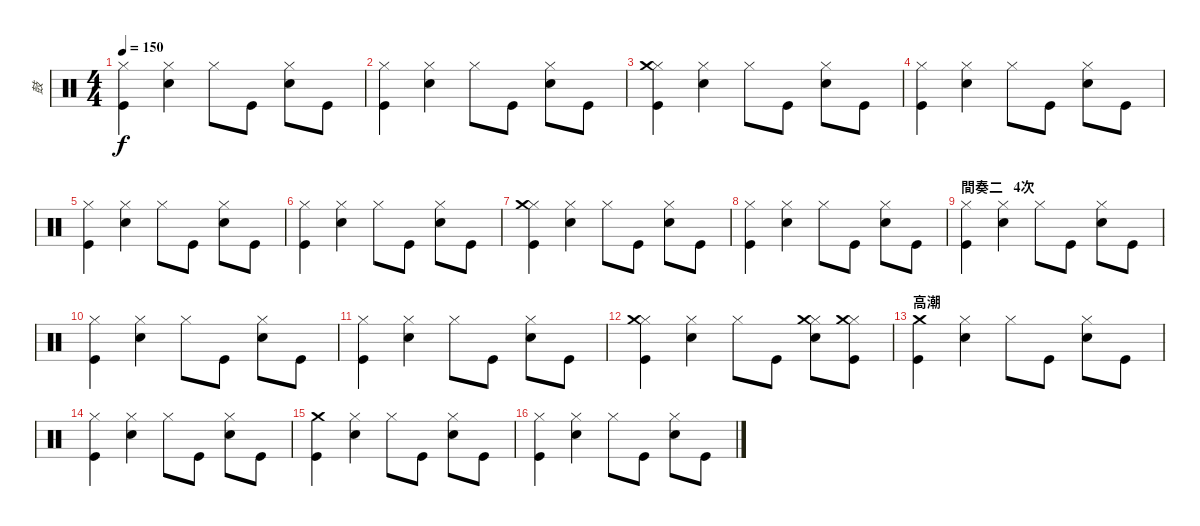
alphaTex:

\track ("鼓" "鼓") {instrument percussion}
\staff {score}
\articulation defaults
\ts (4 4)
\tempo 150
\clef neutral
\ks c
("Kick (hit)" "Hi-Hat (closed)").4{dy f} ("Snare (hit) 2" "Hi-Hat (closed)").4 "Hi-Hat (closed)".8 "Kick (hit)".8 ("Snare (hit) 2" "Hi-Hat (closed)").8 "Kick (hit)".8 |
("Kick (hit)" "Hi-Hat (closed)").4 ("Snare (hit) 2" "Hi-Hat (closed)").4 "Hi-Hat (closed)".8 "Kick (hit)".8 ("Snare (hit) 2" "Hi-Hat (closed)").8 "Kick (hit)".8 |
("Kick (hit)" "Hi-Hat (closed)" "Crash medium (hit)").4 ("Snare (hit) 2" "Hi-Hat (closed)").4 "Hi-Hat (closed)".8 "Kick (hit)".8 ("Snare (hit) 2" "Hi-Hat (closed)").8 "Kick (hit)".8 |
("Kick (hit)" "Hi-Hat (closed)").4 ("Snare (hit) 2" "Hi-Hat (closed)").4 "Hi-Hat (closed)".8 "Kick (hit)".8 ("Snare (hit) 2" "Hi-Hat (closed)").8 "Kick (hit)".8 |
("Kick (hit)" "Hi-Hat (closed)").4 ("Snare (hit) 2" "Hi-Hat (closed)").4 "Hi-Hat (closed)".8 "Kick (hit)".8 ("Snare (hit) 2" "Hi-Hat (closed)").8 "Kick (hit)".8 |
("Kick (hit)" "Hi-Hat (closed)").4 ("Snare (hit) 2" "Hi-Hat (closed)").4 "Hi-Hat (closed)".8 "Kick (hit)".8 ("Snare (hit) 2" "Hi-Hat (closed)").8 "Kick (hit)".8 |
("Kick (hit)" "Hi-Hat (closed)" "Crash medium (hit)").4 ("Snare (hit) 2" "Hi-Hat (closed)").4 "Hi-Hat (closed)".8 "Kick (hit)".8 ("Snare (hit) 2" "Hi-Hat (closed)").8 "Kick (hit)".8 |
("Kick (hit)" "Hi-Hat (closed)").4 ("Snare (hit) 2" "Hi-Hat (closed)").4 "Hi-Hat (closed)".8 "Kick (hit)".8 ("Snare (hit) 2" "Hi-Hat (closed)").8 "Kick (hit)".8 |
\section ("" "間奏二   4次")
("Kick (hit)" "Hi-Hat (closed)").4 ("Snare (hit) 2" "Hi-Hat (closed)").4 "Hi-Hat (closed)".8 "Kick (hit)".8 ("Snare (hit) 2" "Hi-Hat (closed)").8 "Kick (hit)".8 |
("Kick (hit)" "Hi-Hat (closed)").4 ("Snare (hit) 2" "Hi-Hat (closed)").4 "Hi-Hat (closed)".8 "Kick (hit)".8 ("Snare (hit) 2" "Hi-Hat (closed)").8 "Kick (hit)".8 |
("Kick (hit)" "Hi-Hat (closed)").4 ("Snare (hit) 2" "Hi-Hat (closed)").4 "Hi-Hat (closed)".8 "Kick (hit)".8 ("Snare (hit) 2" "Hi-Hat (closed)").8 "Kick (hit)".8 |
("Kick (hit)" "Hi-Hat (closed)" "Crash medium (hit)").4 ("Snare (hit) 2" "Hi-Hat (closed)").4 "Hi-Hat (closed)".8 "Kick (hit)".8 ("Snare (hit) 2" "Hi-Hat (closed)" "Crash medium (hit)").8 ("Kick (hit)" "Hi-Hat (closed)" "Crash medium (hit)").8 |
\section ("" "高潮")
("Kick (hit)" "Crash medium (hit)").4 ("Snare (hit) 2" "Hi-Hat (closed)").4 "Hi-Hat (closed)".8 "Kick (hit)".8 ("Snare (hit) 2" "Hi-Hat (closed)").8 "Kick (hit)".8 |
("Kick (hit)" "Hi-Hat (closed)").4 ("Snare (hit) 2" "Hi-Hat (closed)").4 "Hi-Hat (closed)".8 "Kick (hit)".8 ("Snare (hit) 2" "Hi-Hat (closed)").8 "Kick (hit)".8 |
("Kick (hit)" "Crash medium (hit)").4 ("Snare (hit) 2" "Hi-Hat (closed)").4 "Hi-Hat (closed)".8 "Kick (hit)".8 ("Snare (hit) 2" "Hi-Hat (closed)").8 "Kick (hit)".8 |
("Kick (hit)" "Hi-Hat (closed)").4 ("Snare (hit) 2" "Hi-Hat (closed)").4 "Hi-Hat (closed)".8 "Kick (hit)".8 ("Snare (hit) 2" "Hi-Hat (closed)").8 "Kick (hit)".8
